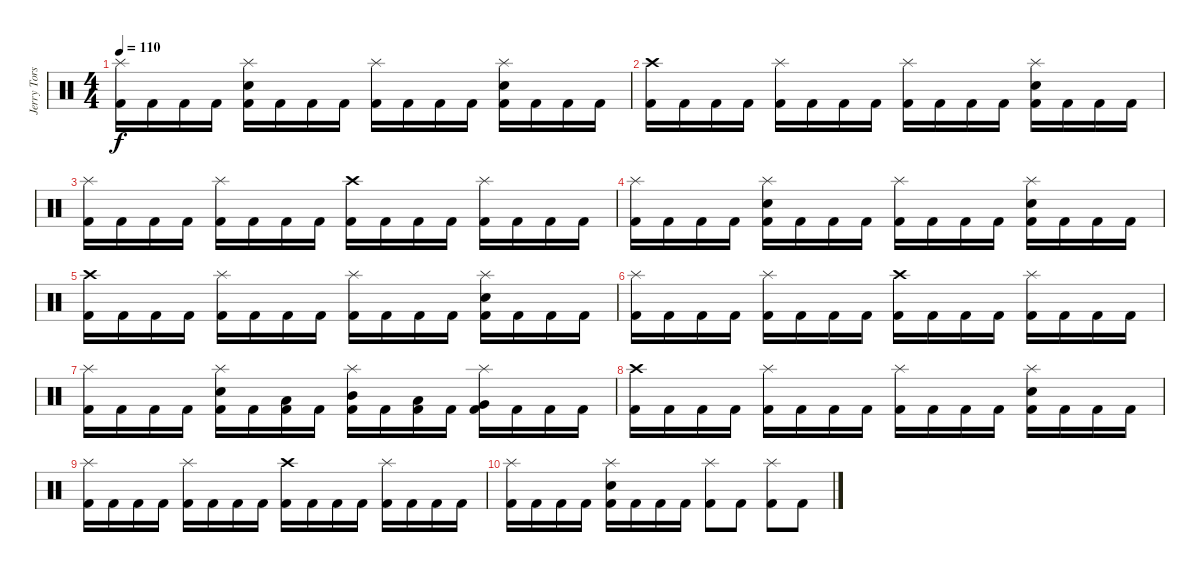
\track ("Jerry Torstensson" "Jerry Tors") {instrument percussion}
\staff {score}
\articulation defaults
\ts (4 4)
\tempo 110
\clef neutral
\ks c
("Splash (hit)" "Kick (hit) 2").16{dy f} "Kick (hit) 2".16 "Kick (hit) 2".16 "Kick (hit) 2".16 ("Splash (hit)" "Electric Snare (hit)" "Kick (hit) 2").16 "Kick (hit) 2".16 "Kick (hit) 2".16 "Kick (hit) 2".16 ("Splash (hit)" "Kick (hit) 2").16 "Kick (hit) 2".16 "Kick (hit) 2".16 "Kick (hit) 2".16 ("Splash (hit)" "Electric Snare (hit)" "Kick (hit) 2").16 "Kick (hit) 2".16 "Kick (hit) 2".16 "Kick (hit) 2".16 |
("Crash high (hit)" "Kick (hit) 2").16 "Kick (hit) 2".16 "Kick (hit) 2".16 "Kick (hit) 2".16 ("Splash (hit)" "Kick (hit) 2").16 "Kick (hit) 2".16 "Kick (hit) 2".16 "Kick (hit) 2".16 ("Splash (hit)" "Kick (hit) 2").16 "Kick (hit) 2".16 "Kick (hit) 2".16 "Kick (hit) 2".16 ("Splash (hit)" "Electric Snare (hit)" "Kick (hit) 2").16 "Kick (hit) 2".16 "Kick (hit) 2".16 "Kick (hit) 2".16 |
("Splash (hit)" "Kick (hit) 2").16 "Kick (hit) 2".16 "Kick (hit) 2".16 "Kick (hit) 2".16 ("Splash (hit)" "Kick (hit) 2").16 "Kick (hit) 2".16 "Kick (hit) 2".16 "Kick (hit) 2".16 ("Crash high (hit)" "Kick (hit) 2").16 "Kick (hit) 2".16 "Kick (hit) 2".16 "Kick (hit) 2".16 ("Splash (hit)" "Kick (hit) 2").16 "Kick (hit) 2".16 "Kick (hit) 2".16 "Kick (hit) 2".16 |
("Splash (hit)" "Kick (hit) 2").16 "Kick (hit) 2".16 "Kick (hit) 2".16 "Kick (hit) 2".16 ("Splash (hit)" "Electric Snare (hit)" "Kick (hit) 2").16 "Kick (hit) 2".16 "Kick (hit) 2".16 "Kick (hit) 2".16 ("Splash (hit)" "Kick (hit) 2").16 "Kick (hit) 2".16 "Kick (hit) 2".16 "Kick (hit) 2".16 ("Splash (hit)" "Electric Snare (hit)" "Kick (hit) 2").16 "Kick (hit) 2".16 "Kick (hit) 2".16 "Kick (hit) 2".16 |
("Crash high (hit)" "Kick (hit) 2").16 "Kick (hit) 2".16 "Kick (hit) 2".16 "Kick (hit) 2".16 ("Splash (hit)" "Kick (hit) 2").16 "Kick (hit) 2".16 "Kick (hit) 2".16 "Kick (hit) 2".16 ("Splash (hit)" "Kick (hit) 2").16 "Kick (hit) 2".16 "Kick (hit) 2".16 "Kick (hit) 2".16 ("Splash (hit)" "Electric Snare (hit)" "Kick (hit) 2").16 "Kick (hit) 2".16 "Kick (hit) 2".16 "Kick (hit) 2".16 |
("Splash (hit)" "Kick (hit) 2").16 "Kick (hit) 2".16 "Kick (hit) 2".16 "Kick (hit) 2".16 ("Splash (hit)" "Kick (hit) 2").16 "Kick (hit) 2".16 "Kick (hit) 2".16 "Kick (hit) 2".16 ("Crash high (hit)" "Kick (hit) 2").16 "Kick (hit) 2".16 "Kick (hit) 2".16 "Kick (hit) 2".16 ("Splash (hit)" "Kick (hit) 2").16 "Kick (hit) 2".16 "Kick (hit) 2".16 "Kick (hit) 2".16 |
("Splash (hit)" "Kick (hit) 2").16 "Kick (hit) 2".16 "Kick (hit) 2".16 "Kick (hit) 2".16 ("Splash (hit)" "Electric Snare (hit)" "Kick (hit) 2").16 "Kick (hit) 2".16 ("Low Tom (hit)" "Kick (hit) 2").16 "Kick (hit) 2".16 ("Splash (hit)" "Mid Tom (hit)" "Kick (hit) 2").16 "Kick (hit) 2".16 ("Low Tom (hit)" "Kick (hit) 2").16 "Kick (hit) 2".16 ("Splash (hit)" "Very Low Tom (hit)" "Kick (hit) 2").16 "Kick (hit) 2".16 "Kick (hit) 2".16 "Kick (hit) 2".16 |
("Crash high (hit)" "Kick (hit) 2").16 "Kick (hit) 2".16 "Kick (hit) 2".16 "Kick (hit) 2".16 ("Splash (hit)" "Kick (hit) 2").16 "Kick (hit) 2".16 "Kick (hit) 2".16 "Kick (hit) 2".16 ("Splash (hit)" "Kick (hit) 2").16 "Kick (hit) 2".16 "Kick (hit) 2".16 "Kick (hit) 2".16 ("Splash (hit)" "Electric Snare (hit)" "Kick (hit) 2").16 "Kick (hit) 2".16 "Kick (hit) 2".16 "Kick (hit) 2".16 |
("Splash (hit)" "Kick (hit) 2").16 "Kick (hit) 2".16 "Kick (hit) 2".16 "Kick (hit) 2".16 ("Splash (hit)" "Kick (hit) 2").16 "Kick (hit) 2".16 "Kick (hit) 2".16 "Kick (hit) 2".16 ("Crash high (hit)" "Kick (hit) 2").16 "Kick (hit) 2".16 "Kick (hit) 2".16 "Kick (hit) 2".16 ("Splash (hit)" "Kick (hit) 2").16 "Kick (hit) 2".16 "Kick (hit) 2".16 "Kick (hit) 2".16 |
("Splash (hit)" "Kick (hit) 2").16 "Kick (hit) 2".16 "Kick (hit) 2".16 "Kick (hit) 2".16 ("Splash (hit)" "Electric Snare (hit)" "Kick (hit) 2").16 "Kick (hit) 2".16 "Kick (hit) 2".16 "Kick (hit) 2".16 ("Splash (hit)" "Kick (hit) 2").8 "Kick (hit) 2".8 ("Splash (hit)" "Kick (hit) 2").8 "Kick (hit) 2".8
